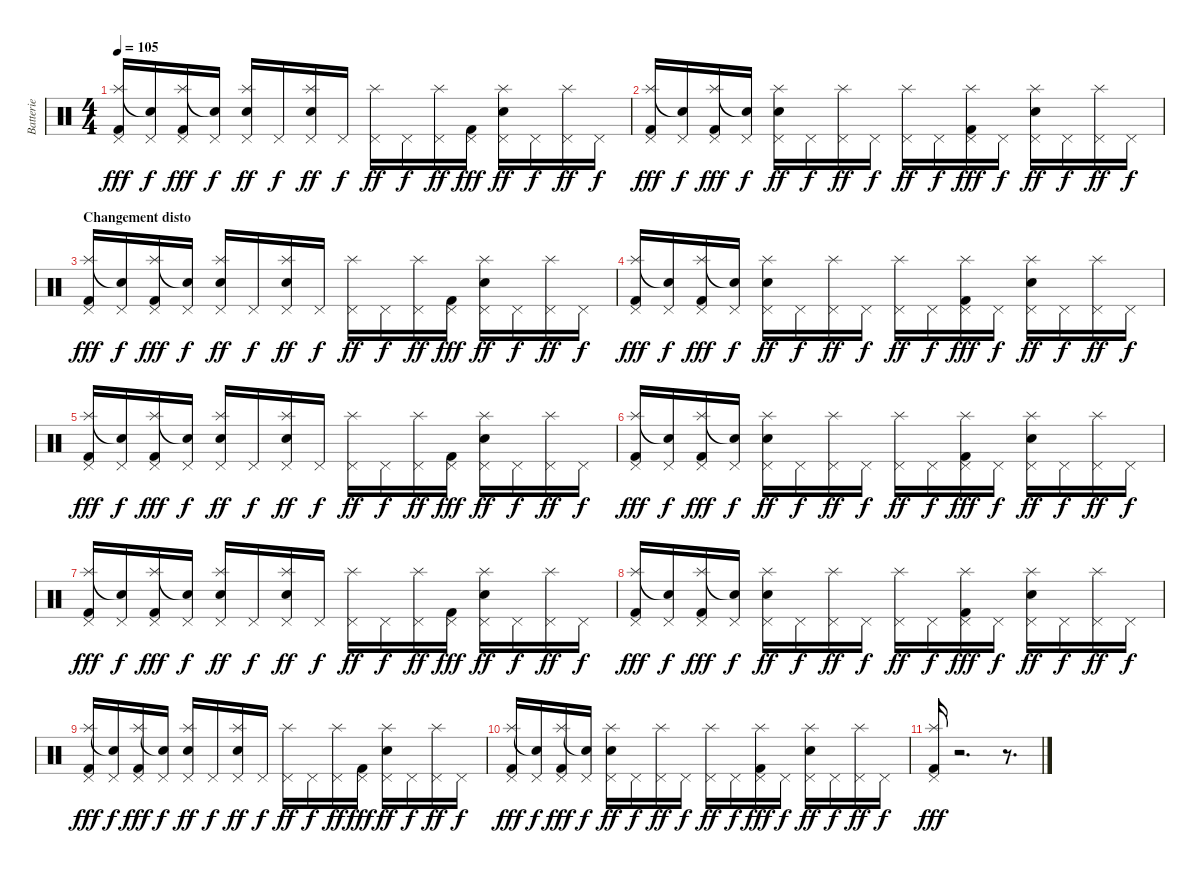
\track ("Batterie" "Batterie") {instrument percussion}
\staff {score}
\articulation defaults
\ts (4 4)
\tempo 105
\clef neutral
\ks c
("Pedal Hi-Hat (hit)" "Splash (hit)" "Kick (hit) 2").16{dy fff} ("Pedal Hi-Hat (hit)" "Snare (hit)"{t}).16{dy f} ("Pedal Hi-Hat (hit)" "Splash (hit)" "Kick (hit) 2").16{dy fff} ("Pedal Hi-Hat (hit)" "Snare (hit)"{t}).16{dy f} ("Pedal Hi-Hat (hit)" "Snare (hit) 2" "Splash (hit)").16{dy ff} "Pedal Hi-Hat (hit)".16{dy f} ("Pedal Hi-Hat (hit)" "Snare (hit) 2" "Splash (hit)").16{dy ff} "Pedal Hi-Hat (hit)".16{dy f} ("Pedal Hi-Hat (hit)" "Splash (hit)").16{dy ff} "Pedal Hi-Hat (hit)".16{dy f} ("Pedal Hi-Hat (hit)" "Splash (hit)").16{dy ff} ("Pedal Hi-Hat (hit)" "Kick (hit) 2").16{dy fff} ("Pedal Hi-Hat (hit)" "Snare (hit) 2" "Splash (hit)").16{dy ff} "Pedal Hi-Hat (hit)".16{dy f} ("Pedal Hi-Hat (hit)" "Splash (hit)").16{dy ff} "Pedal Hi-Hat (hit)".16{dy f} |
("Pedal Hi-Hat (hit)" "Splash (hit)" "Kick (hit) 2").16{dy fff} ("Pedal Hi-Hat (hit)" "Snare (hit)"{t}).16{dy f} ("Pedal Hi-Hat (hit)" "Splash (hit)" "Kick (hit) 2").16{dy fff} ("Pedal Hi-Hat (hit)" "Snare (hit)"{t}).16{dy f} ("Pedal Hi-Hat (hit)" "Snare (hit) 2" "Splash (hit)").16{dy ff} "Pedal Hi-Hat (hit)".16{dy f} ("Pedal Hi-Hat (hit)" "Splash (hit)").16{dy ff} "Pedal Hi-Hat (hit)".16{dy f} ("Pedal Hi-Hat (hit)" "Splash (hit)").16{dy ff} "Pedal Hi-Hat (hit)".16{dy f} ("Pedal Hi-Hat (hit)" "Splash (hit)" "Kick (hit) 2").16{dy fff} "Pedal Hi-Hat (hit)".16{dy f} ("Pedal Hi-Hat (hit)" "Snare (hit) 2" "Splash (hit)").16{dy ff} "Pedal Hi-Hat (hit)".16{dy f} ("Pedal Hi-Hat (hit)" "Splash (hit)").16{dy ff} "Pedal Hi-Hat (hit)".16{dy f} |
\section ("" "Changement disto")
("Pedal Hi-Hat (hit)" "Splash (hit)" "Kick (hit) 2").16{dy fff} ("Pedal Hi-Hat (hit)" "Snare (hit)"{t}).16{dy f} ("Pedal Hi-Hat (hit)" "Splash (hit)" "Kick (hit) 2").16{dy fff} ("Pedal Hi-Hat (hit)" "Snare (hit)"{t}).16{dy f} ("Pedal Hi-Hat (hit)" "Snare (hit) 2" "Splash (hit)").16{dy ff} "Pedal Hi-Hat (hit)".16{dy f} ("Pedal Hi-Hat (hit)" "Snare (hit) 2" "Splash (hit)").16{dy ff} "Pedal Hi-Hat (hit)".16{dy f} ("Pedal Hi-Hat (hit)" "Splash (hit)").16{dy ff} "Pedal Hi-Hat (hit)".16{dy f} ("Pedal Hi-Hat (hit)" "Splash (hit)").16{dy ff} ("Pedal Hi-Hat (hit)" "Kick (hit) 2").16{dy fff} ("Pedal Hi-Hat (hit)" "Snare (hit) 2" "Splash (hit)").16{dy ff} "Pedal Hi-Hat (hit)".16{dy f} ("Pedal Hi-Hat (hit)" "Splash (hit)").16{dy ff} "Pedal Hi-Hat (hit)".16{dy f} |
("Pedal Hi-Hat (hit)" "Splash (hit)" "Kick (hit) 2").16{dy fff} ("Pedal Hi-Hat (hit)" "Snare (hit)"{t}).16{dy f} ("Pedal Hi-Hat (hit)" "Splash (hit)" "Kick (hit) 2").16{dy fff} ("Pedal Hi-Hat (hit)" "Snare (hit)"{t}).16{dy f} ("Pedal Hi-Hat (hit)" "Snare (hit) 2" "Splash (hit)").16{dy ff} "Pedal Hi-Hat (hit)".16{dy f} ("Pedal Hi-Hat (hit)" "Splash (hit)").16{dy ff} "Pedal Hi-Hat (hit)".16{dy f} ("Pedal Hi-Hat (hit)" "Splash (hit)").16{dy ff} "Pedal Hi-Hat (hit)".16{dy f} ("Pedal Hi-Hat (hit)" "Splash (hit)" "Kick (hit) 2").16{dy fff} "Pedal Hi-Hat (hit)".16{dy f} ("Pedal Hi-Hat (hit)" "Snare (hit) 2" "Splash (hit)").16{dy ff} "Pedal Hi-Hat (hit)".16{dy f} ("Pedal Hi-Hat (hit)" "Splash (hit)").16{dy ff} "Pedal Hi-Hat (hit)".16{dy f} |
("Pedal Hi-Hat (hit)" "Splash (hit)" "Kick (hit) 2").16{dy fff} ("Pedal Hi-Hat (hit)" "Snare (hit)"{t}).16{dy f} ("Pedal Hi-Hat (hit)" "Splash (hit)" "Kick (hit) 2").16{dy fff} ("Pedal Hi-Hat (hit)" "Snare (hit)"{t}).16{dy f} ("Pedal Hi-Hat (hit)" "Snare (hit) 2" "Splash (hit)").16{dy ff} "Pedal Hi-Hat (hit)".16{dy f} ("Pedal Hi-Hat (hit)" "Snare (hit) 2" "Splash (hit)").16{dy ff} "Pedal Hi-Hat (hit)".16{dy f} ("Pedal Hi-Hat (hit)" "Splash (hit)").16{dy ff} "Pedal Hi-Hat (hit)".16{dy f} ("Pedal Hi-Hat (hit)" "Splash (hit)").16{dy ff} ("Pedal Hi-Hat (hit)" "Kick (hit) 2").16{dy fff} ("Pedal Hi-Hat (hit)" "Snare (hit) 2" "Splash (hit)").16{dy ff} "Pedal Hi-Hat (hit)".16{dy f} ("Pedal Hi-Hat (hit)" "Splash (hit)").16{dy ff} "Pedal Hi-Hat (hit)".16{dy f} |
("Pedal Hi-Hat (hit)" "Splash (hit)" "Kick (hit) 2").16{dy fff} ("Pedal Hi-Hat (hit)" "Snare (hit)"{t}).16{dy f} ("Pedal Hi-Hat (hit)" "Splash (hit)" "Kick (hit) 2").16{dy fff} ("Pedal Hi-Hat (hit)" "Snare (hit)"{t}).16{dy f} ("Pedal Hi-Hat (hit)" "Snare (hit) 2" "Splash (hit)").16{dy ff} "Pedal Hi-Hat (hit)".16{dy f} ("Pedal Hi-Hat (hit)" "Splash (hit)").16{dy ff} "Pedal Hi-Hat (hit)".16{dy f} ("Pedal Hi-Hat (hit)" "Splash (hit)").16{dy ff} "Pedal Hi-Hat (hit)".16{dy f} ("Pedal Hi-Hat (hit)" "Splash (hit)" "Kick (hit) 2").16{dy fff} "Pedal Hi-Hat (hit)".16{dy f} ("Pedal Hi-Hat (hit)" "Snare (hit) 2" "Splash (hit)").16{dy ff} "Pedal Hi-Hat (hit)".16{dy f} ("Pedal Hi-Hat (hit)" "Splash (hit)").16{dy ff} "Pedal Hi-Hat (hit)".16{dy f} |
("Pedal Hi-Hat (hit)" "Splash (hit)" "Kick (hit) 2").16{dy fff} ("Pedal Hi-Hat (hit)" "Snare (hit)"{t}).16{dy f} ("Pedal Hi-Hat (hit)" "Splash (hit)" "Kick (hit) 2").16{dy fff} ("Pedal Hi-Hat (hit)" "Snare (hit)"{t}).16{dy f} ("Pedal Hi-Hat (hit)" "Snare (hit) 2" "Splash (hit)").16{dy ff} "Pedal Hi-Hat (hit)".16{dy f} ("Pedal Hi-Hat (hit)" "Snare (hit) 2" "Splash (hit)").16{dy ff} "Pedal Hi-Hat (hit)".16{dy f} ("Pedal Hi-Hat (hit)" "Splash (hit)").16{dy ff} "Pedal Hi-Hat (hit)".16{dy f} ("Pedal Hi-Hat (hit)" "Splash (hit)").16{dy ff} ("Pedal Hi-Hat (hit)" "Kick (hit) 2").16{dy fff} ("Pedal Hi-Hat (hit)" "Snare (hit) 2" "Splash (hit)").16{dy ff} "Pedal Hi-Hat (hit)".16{dy f} ("Pedal Hi-Hat (hit)" "Splash (hit)").16{dy ff} "Pedal Hi-Hat (hit)".16{dy f} |
("Pedal Hi-Hat (hit)" "Splash (hit)" "Kick (hit) 2").16{dy fff} ("Pedal Hi-Hat (hit)" "Snare (hit)"{t}).16{dy f} ("Pedal Hi-Hat (hit)" "Splash (hit)" "Kick (hit) 2").16{dy fff} ("Pedal Hi-Hat (hit)" "Snare (hit)"{t}).16{dy f} ("Pedal Hi-Hat (hit)" "Snare (hit) 2" "Splash (hit)").16{dy ff} "Pedal Hi-Hat (hit)".16{dy f} ("Pedal Hi-Hat (hit)" "Splash (hit)").16{dy ff} "Pedal Hi-Hat (hit)".16{dy f} ("Pedal Hi-Hat (hit)" "Splash (hit)").16{dy ff} "Pedal Hi-Hat (hit)".16{dy f} ("Pedal Hi-Hat (hit)" "Splash (hit)" "Kick (hit) 2").16{dy fff} "Pedal Hi-Hat (hit)".16{dy f} ("Pedal Hi-Hat (hit)" "Snare (hit) 2" "Splash (hit)").16{dy ff} "Pedal Hi-Hat (hit)".16{dy f} ("Pedal Hi-Hat (hit)" "Splash (hit)").16{dy ff} "Pedal Hi-Hat (hit)".16{dy f} |
("Pedal Hi-Hat (hit)" "Splash (hit)" "Kick (hit) 2").16{dy fff} ("Pedal Hi-Hat (hit)" "Snare (hit)"{t}).16{dy f} ("Pedal Hi-Hat (hit)" "Splash (hit)" "Kick (hit) 2").16{dy fff} ("Pedal Hi-Hat (hit)" "Snare (hit)"{t}).16{dy f} ("Pedal Hi-Hat (hit)" "Snare (hit) 2" "Splash (hit)").16{dy ff} "Pedal Hi-Hat (hit)".16{dy f} ("Pedal Hi-Hat (hit)" "Snare (hit) 2" "Splash (hit)").16{dy ff} "Pedal Hi-Hat (hit)".16{dy f} ("Pedal Hi-Hat (hit)" "Splash (hit)").16{dy ff} "Pedal Hi-Hat (hit)".16{dy f} ("Pedal Hi-Hat (hit)" "Splash (hit)").16{dy ff} ("Pedal Hi-Hat (hit)" "Kick (hit) 2").16{dy fff} ("Pedal Hi-Hat (hit)" "Snare (hit) 2" "Splash (hit)").16{dy ff} "Pedal Hi-Hat (hit)".16{dy f} ("Pedal Hi-Hat (hit)" "Splash (hit)").16{dy ff} "Pedal Hi-Hat (hit)".16{dy f} |
("Pedal Hi-Hat (hit)" "Splash (hit)" "Kick (hit) 2").16{dy fff} ("Pedal Hi-Hat (hit)" "Snare (hit)"{t}).16{dy f} ("Pedal Hi-Hat (hit)" "Splash (hit)" "Kick (hit) 2").16{dy fff} ("Pedal Hi-Hat (hit)" "Snare (hit)"{t}).16{dy f} ("Pedal Hi-Hat (hit)" "Snare (hit) 2" "Splash (hit)").16{dy ff} "Pedal Hi-Hat (hit)".16{dy f} ("Pedal Hi-Hat (hit)" "Splash (hit)").16{dy ff} "Pedal Hi-Hat (hit)".16{dy f} ("Pedal Hi-Hat (hit)" "Splash (hit)").16{dy ff} "Pedal Hi-Hat (hit)".16{dy f} ("Pedal Hi-Hat (hit)" "Splash (hit)" "Kick (hit) 2").16{dy fff} "Pedal Hi-Hat (hit)".16{dy f} ("Pedal Hi-Hat (hit)" "Snare (hit) 2" "Splash (hit)").16{dy ff} "Pedal Hi-Hat (hit)".16{dy f} ("Pedal Hi-Hat (hit)" "Splash (hit)").16{dy ff} "Pedal Hi-Hat (hit)".16{dy f} |
("Pedal Hi-Hat (hit)" "Splash (hit)" "Kick (hit) 2").16{dy fff} r.2{d} r.8{d}
